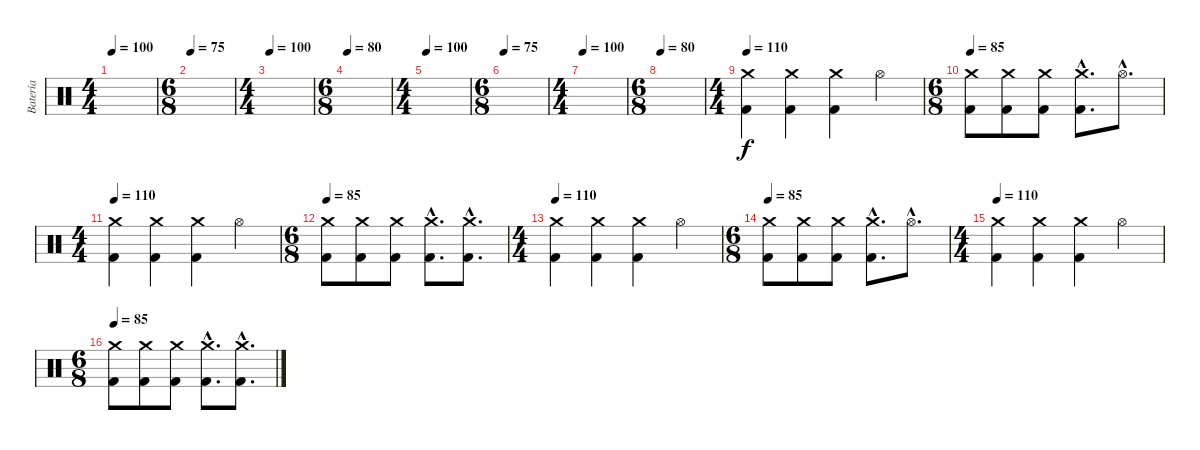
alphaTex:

\track ("Batería" "Batería") {instrument percussion}
\staff {score}
\articulation defaults
\ts (4 4)
\tempo 100
\clef neutral
\ks c
|
\ts (6 8)
\tempo 75
|
\ts (4 4)
\tempo 100
|
\ts (6 8)
\tempo 80
|
\ts (4 4)
\tempo 100
|
\ts (6 8)
\tempo 75
|
\ts (4 4)
\tempo 100
|
\ts (6 8)
\tempo 80
|
\ts (4 4)
\tempo 110
("Crash medium (hit)" "Kick (hit) 2").4 ("Crash medium (hit)" "Kick (hit) 2").4 ("Crash medium (hit)" "Kick (hit) 2").4 "Hi-Hat (open)".4 |
\ts (6 8)
\tempo 85
("Crash medium (hit)" "Kick (hit) 2").8 ("Crash medium (hit)" "Kick (hit) 2").8 ("Crash medium (hit)" "Kick (hit) 2").8 ("Crash medium (hit)"{hac} "Kick (hit) 2"{hac}).8{d} "Hi-Hat (open)"{hac}.8{d} |
\ts (4 4)
\tempo 110
("Crash medium (hit)" "Kick (hit) 2").4 ("Crash medium (hit)" "Kick (hit) 2").4 ("Crash medium (hit)" "Kick (hit) 2").4 "Hi-Hat (open)".4 |
\ts (6 8)
\tempo 85
("Crash medium (hit)" "Kick (hit) 2").8 ("Crash medium (hit)" "Kick (hit) 2").8 ("Crash medium (hit)" "Kick (hit) 2").8 ("Crash medium (hit)"{hac} "Kick (hit) 2"{hac}).8{d} ("Crash medium (hit)"{hac} "Kick (hit) 2"{hac}).8{d} |
\ts (4 4)
\tempo 110
("Crash medium (hit)" "Kick (hit) 2").4 ("Crash medium (hit)" "Kick (hit) 2").4 ("Crash medium (hit)" "Kick (hit) 2").4 "Hi-Hat (open)".4 |
\ts (6 8)
\tempo 85
("Crash medium (hit)" "Kick (hit) 2").8 ("Crash medium (hit)" "Kick (hit) 2").8 ("Crash medium (hit)" "Kick (hit) 2").8 ("Crash medium (hit)"{hac} "Kick (hit) 2"{hac}).8{d} "Hi-Hat (open)"{hac}.8{d} |
\ts (4 4)
\tempo 110
("Crash medium (hit)" "Kick (hit) 2").4 ("Crash medium (hit)" "Kick (hit) 2").4 ("Crash medium (hit)" "Kick (hit) 2").4 "Hi-Hat (open)".4 |
\ts (6 8)
\tempo 85
("Crash medium (hit)" "Kick (hit) 2").8 ("Crash medium (hit)" "Kick (hit) 2").8 ("Crash medium (hit)" "Kick (hit) 2").8 ("Crash medium (hit)"{hac} "Kick (hit) 2"{hac}).8{d} ("Crash medium (hit)"{hac} "Kick (hit) 2"{hac}).8{d}
